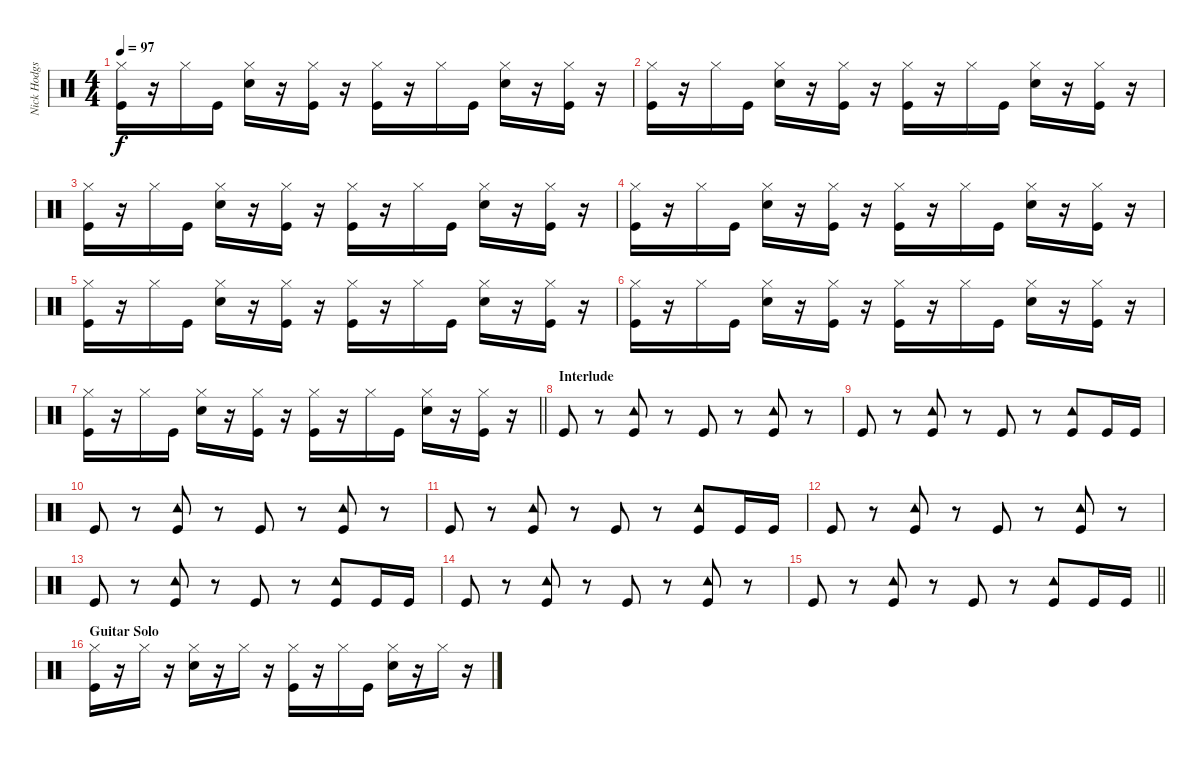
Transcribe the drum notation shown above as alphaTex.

\track ("Nick Hodgson's drums" "Nick Hodgs") {instrument percussion}
\staff {score}
\articulation defaults
\ts (4 4)
\tempo 97
\clef neutral
\ks c
("Hi-Hat (closed)" "Kick (hit)").16{dy f} r.16 "Hi-Hat (closed)".16 "Kick (hit)".16 ("Hi-Hat (closed)" "Snare (hit) 2").16 r.16 ("Hi-Hat (closed)" "Kick (hit)").16 r.16 ("Hi-Hat (closed)" "Kick (hit)").16 r.16 "Hi-Hat (closed)".16 "Kick (hit)".16 ("Hi-Hat (closed)" "Snare (hit) 2").16 r.16 ("Hi-Hat (closed)" "Kick (hit)").16 r.16 |
("Hi-Hat (closed)" "Kick (hit)").16 r.16 "Hi-Hat (closed)".16 "Kick (hit)".16 ("Hi-Hat (closed)" "Snare (hit) 2").16 r.16 ("Hi-Hat (closed)" "Kick (hit)").16 r.16 ("Hi-Hat (closed)" "Kick (hit)").16 r.16 "Hi-Hat (closed)".16 "Kick (hit)".16 ("Hi-Hat (closed)" "Snare (hit) 2").16 r.16 ("Hi-Hat (closed)" "Kick (hit)").16 r.16 |
("Hi-Hat (closed)" "Kick (hit)").16 r.16 "Hi-Hat (closed)".16 "Kick (hit)".16 ("Hi-Hat (closed)" "Snare (hit) 2").16 r.16 ("Hi-Hat (closed)" "Kick (hit)").16 r.16 ("Hi-Hat (closed)" "Kick (hit)").16 r.16 "Hi-Hat (closed)".16 "Kick (hit)".16 ("Hi-Hat (closed)" "Snare (hit) 2").16 r.16 ("Hi-Hat (closed)" "Kick (hit)").16 r.16 |
("Hi-Hat (closed)" "Kick (hit)").16 r.16 "Hi-Hat (closed)".16 "Kick (hit)".16 ("Hi-Hat (closed)" "Snare (hit) 2").16 r.16 ("Hi-Hat (closed)" "Kick (hit)").16 r.16 ("Hi-Hat (closed)" "Kick (hit)").16 r.16 "Hi-Hat (closed)".16 "Kick (hit)".16 ("Hi-Hat (closed)" "Snare (hit) 2").16 r.16 ("Hi-Hat (closed)" "Kick (hit)").16 r.16 |
("Hi-Hat (closed)" "Kick (hit)").16 r.16 "Hi-Hat (closed)".16 "Kick (hit)".16 ("Hi-Hat (closed)" "Snare (hit) 2").16 r.16 ("Hi-Hat (closed)" "Kick (hit)").16 r.16 ("Hi-Hat (closed)" "Kick (hit)").16 r.16 "Hi-Hat (closed)".16 "Kick (hit)".16 ("Hi-Hat (closed)" "Snare (hit) 2").16 r.16 ("Hi-Hat (closed)" "Kick (hit)").16 r.16 |
("Hi-Hat (closed)" "Kick (hit)").16 r.16 "Hi-Hat (closed)".16 "Kick (hit)".16 ("Hi-Hat (closed)" "Snare (hit) 2").16 r.16 ("Hi-Hat (closed)" "Kick (hit)").16 r.16 ("Hi-Hat (closed)" "Kick (hit)").16 r.16 "Hi-Hat (closed)".16 "Kick (hit)".16 ("Hi-Hat (closed)" "Snare (hit) 2").16 r.16 ("Hi-Hat (closed)" "Kick (hit)").16 r.16 |
\barLineRight lightlight
("Hi-Hat (closed)" "Kick (hit)").16 r.16 "Hi-Hat (closed)".16 "Kick (hit)".16 ("Hi-Hat (closed)" "Snare (hit) 2").16 r.16 ("Hi-Hat (closed)" "Kick (hit)").16 r.16 ("Hi-Hat (closed)" "Kick (hit)").16 r.16 "Hi-Hat (closed)".16 "Kick (hit)".16 ("Hi-Hat (closed)" "Snare (hit) 2").16 r.16 ("Hi-Hat (closed)" "Kick (hit)").16 r.16 |
\section ("" "Interlude")
"Kick (hit)".8 r.8 ("Tambourine (hit)" "Kick (hit)").8 r.8 "Kick (hit)".8 r.8 ("Tambourine (hit)" "Kick (hit)").8 r.8 |
"Kick (hit)".8 r.8 ("Tambourine (hit)" "Kick (hit)").8 r.8 "Kick (hit)".8 r.8 ("Tambourine (hit)" "Kick (hit)").8 "Kick (hit)".16 "Kick (hit)".16 |
"Kick (hit)".8 r.8 ("Tambourine (hit)" "Kick (hit)").8 r.8 "Kick (hit)".8 r.8 ("Tambourine (hit)" "Kick (hit)").8 r.8 |
"Kick (hit)".8 r.8 ("Tambourine (hit)" "Kick (hit)").8 r.8 "Kick (hit)".8 r.8 ("Tambourine (hit)" "Kick (hit)").8 "Kick (hit)".16 "Kick (hit)".16 |
"Kick (hit)".8 r.8 ("Tambourine (hit)" "Kick (hit)").8 r.8 "Kick (hit)".8 r.8 ("Tambourine (hit)" "Kick (hit)").8 r.8 |
"Kick (hit)".8 r.8 ("Tambourine (hit)" "Kick (hit)").8 r.8 "Kick (hit)".8 r.8 ("Tambourine (hit)" "Kick (hit)").8 "Kick (hit)".16 "Kick (hit)".16 |
"Kick (hit)".8 r.8 ("Tambourine (hit)" "Kick (hit)").8 r.8 "Kick (hit)".8 r.8 ("Tambourine (hit)" "Kick (hit)").8 r.8 |
\barLineRight lightlight "Kick (hit)".8
r.8 ("Tambourine (hit)" "Kick (hit)").8 r.8 "Kick (hit)".8 r.8 ("Tambourine (hit)" "Kick (hit)").8 "Kick (hit)".16 "Kick (hit)".16 |
\section ("" "Guitar Solo")
("Hi-Hat (closed)" "Kick (hit)").16 r.16 "Hi-Hat (closed)".16 r.16 ("Hi-Hat (closed)" "Snare (hit) 2").16 r.16 "Hi-Hat (closed)".16 r.16 ("Hi-Hat (closed)" "Kick (hit)").16 r.16 "Hi-Hat (closed)".16 "Kick (hit)".16 ("Hi-Hat (closed)" "Snare (hit) 2").16 r.16 "Hi-Hat (closed)".16 r.16
